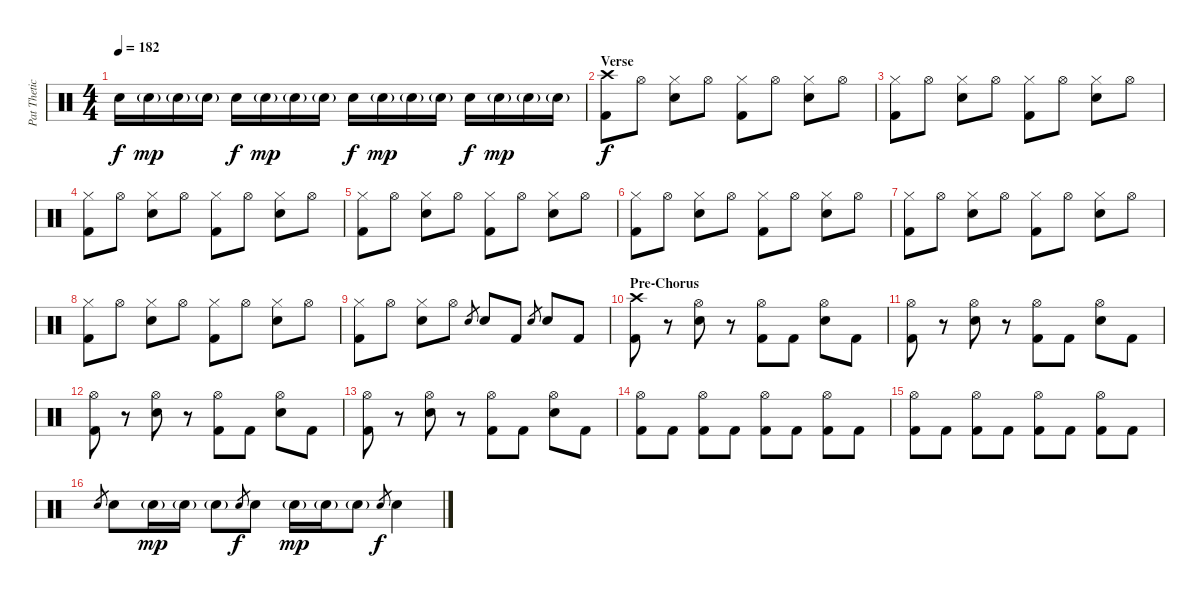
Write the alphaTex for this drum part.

\track ("Pat Thetic - Drums" "Pat Thetic") {instrument percussion}
\staff {score}
\articulation defaults
\ts (4 4)
\tempo 182
\clef neutral
\ks c "Electric Snare (hit)".16{dy f} "Snare (hit) 2"{g}.16{dy mp} "Snare (hit) 2"{g}.16 "Snare (hit) 2"{g}.16 "Electric Snare (hit)".16{dy f} "Snare (hit) 2"{g}.16{dy mp} "Snare (hit) 2"{g}.16 "Snare (hit) 2"{g}.16 "Electric Snare (hit)".16{dy f} "Snare (hit) 2"{g}.16{dy mp} "Snare (hit) 2"{g}.16 "Snare (hit) 2"{g}.16 "Electric Snare (hit)".16{dy f} "Snare (hit) 2"{g}.16{dy mp} "Snare (hit) 2"{g}.16 "Snare (hit) 2"{g}.16
|
\section ("" "Verse")
("Crash high (hit)" "Kick (hit) 2").8{dy f} "Hi-Hat (open)".8 ("Hi-Hat (closed)" "Electric Snare (hit)").8 "Hi-Hat (open)".8 ("Hi-Hat (closed)" "Kick (hit) 2").8 "Hi-Hat (open)".8 ("Hi-Hat (closed)" "Electric Snare (hit)").8 "Hi-Hat (open)".8 |
("Hi-Hat (closed)" "Kick (hit) 2").8 "Hi-Hat (open)".8 ("Hi-Hat (closed)" "Electric Snare (hit)").8 "Hi-Hat (open)".8 ("Hi-Hat (closed)" "Kick (hit) 2").8 "Hi-Hat (open)".8 ("Hi-Hat (closed)" "Electric Snare (hit)").8 "Hi-Hat (open)".8 |
("Hi-Hat (closed)" "Kick (hit) 2").8 "Hi-Hat (open)".8 ("Hi-Hat (closed)" "Electric Snare (hit)").8 "Hi-Hat (open)".8 ("Hi-Hat (closed)" "Kick (hit) 2").8 "Hi-Hat (open)".8 ("Hi-Hat (closed)" "Electric Snare (hit)").8 "Hi-Hat (open)".8 |
("Hi-Hat (closed)" "Kick (hit) 2").8 "Hi-Hat (open)".8 ("Hi-Hat (closed)" "Electric Snare (hit)").8 "Hi-Hat (open)".8 ("Hi-Hat (closed)" "Kick (hit) 2").8 "Hi-Hat (open)".8 ("Hi-Hat (closed)" "Electric Snare (hit)").8 "Hi-Hat (open)".8 |
("Hi-Hat (closed)" "Kick (hit) 2").8 "Hi-Hat (open)".8 ("Hi-Hat (closed)" "Electric Snare (hit)").8 "Hi-Hat (open)".8 ("Hi-Hat (closed)" "Kick (hit) 2").8 "Hi-Hat (open)".8 ("Hi-Hat (closed)" "Electric Snare (hit)").8 "Hi-Hat (open)".8 |
("Hi-Hat (closed)" "Kick (hit) 2").8 "Hi-Hat (open)".8 ("Hi-Hat (closed)" "Electric Snare (hit)").8 "Hi-Hat (open)".8 ("Hi-Hat (closed)" "Kick (hit) 2").8 "Hi-Hat (open)".8 ("Hi-Hat (closed)" "Electric Snare (hit)").8 "Hi-Hat (open)".8 |
("Hi-Hat (closed)" "Kick (hit) 2").8 "Hi-Hat (open)".8 ("Hi-Hat (closed)" "Electric Snare (hit)").8 "Hi-Hat (open)".8 ("Hi-Hat (closed)" "Kick (hit) 2").8 "Hi-Hat (open)".8 ("Hi-Hat (closed)" "Electric Snare (hit)").8 "Hi-Hat (open)".8 |
("Hi-Hat (closed)" "Kick (hit) 2").8 "Hi-Hat (open)".8 ("Hi-Hat (closed)" "Electric Snare (hit)").8 "Hi-Hat (open)".8 "Electric Snare (hit)".8{gr} "Electric Snare (hit)".8 "Kick (hit) 2".8 "Electric Snare (hit)".8{gr} "Electric Snare (hit)".8 "Kick (hit) 2".8 |
\section ("" "Pre-Chorus")
("Crash high (hit)" "Kick (hit) 2").8 r.8 ("Hi-Hat (open)" "Electric Snare (hit)").8 r.8 ("Hi-Hat (open)" "Kick (hit) 2").8 "Kick (hit) 2".8 ("Hi-Hat (open)" "Electric Snare (hit)").8 "Kick (hit) 2".8 |
("Hi-Hat (open)" "Kick (hit) 2").8 r.8 ("Hi-Hat (open)" "Electric Snare (hit)").8 r.8 ("Hi-Hat (open)" "Kick (hit) 2").8 "Kick (hit) 2".8 ("Hi-Hat (open)" "Electric Snare (hit)").8 "Kick (hit) 2".8 |
("Hi-Hat (open)" "Kick (hit) 2").8 r.8 ("Hi-Hat (open)" "Electric Snare (hit)").8 r.8 ("Hi-Hat (open)" "Kick (hit) 2").8 "Kick (hit) 2".8 ("Hi-Hat (open)" "Electric Snare (hit)").8 "Kick (hit) 2".8 |
("Hi-Hat (open)" "Kick (hit) 2").8 r.8 ("Hi-Hat (open)" "Electric Snare (hit)").8 r.8 ("Hi-Hat (open)" "Kick (hit) 2").8 "Kick (hit) 2".8 ("Hi-Hat (open)" "Electric Snare (hit)").8 "Kick (hit) 2".8 |
("Hi-Hat (open)" "Kick (hit) 2").8 "Kick (hit) 2".8 ("Hi-Hat (open)" "Kick (hit) 2").8 "Kick (hit) 2".8 ("Hi-Hat (open)" "Kick (hit) 2").8 "Kick (hit) 2".8 ("Hi-Hat (open)" "Kick (hit) 2").8 "Kick (hit) 2".8 |
("Hi-Hat (open)" "Kick (hit) 2").8 "Kick (hit) 2".8 ("Hi-Hat (open)" "Kick (hit) 2").8 "Kick (hit) 2".8 ("Hi-Hat (open)" "Kick (hit) 2").8 "Kick (hit) 2".8 ("Hi-Hat (open)" "Kick (hit) 2").8 "Kick (hit) 2".8 |
"Electric Snare (hit)".8{gr} "Electric Snare (hit)".8 "Snare (hit) 2"{g}.16{dy mp} "Snare (hit) 2"{g}.16 "Snare (hit) 2"{g}.8 "Electric Snare (hit)".8{gr dy f} "Electric Snare (hit)".8 "Snare (hit) 2"{g}.16{dy mp} "Snare (hit) 2"{g}.16 "Snare (hit) 2"{g}.8 "Electric Snare (hit)".8{gr dy f} "Electric Snare (hit)".4
